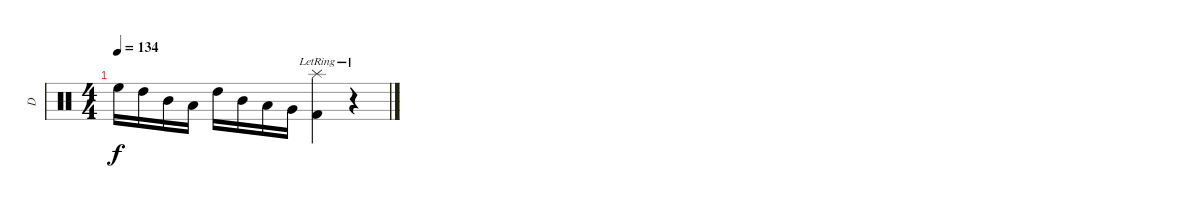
\track ("D" "D") {instrument percussion}
\staff {score}
\articulation defaults
\ts (4 4)
\tempo 134
\clef neutral
\ks c "High Floor Tom (hit)".16{dy f} "High Tom (hit)".16 "Mid Tom (hit)".16 "Low Tom (hit)".16 "High Tom (hit)".16 "Mid Tom (hit)".16 "Low Tom (hit)".16 "Very Low Tom (hit)".16
("Splash (hit)"{lr} "Kick (hit) 2").4 r.4
